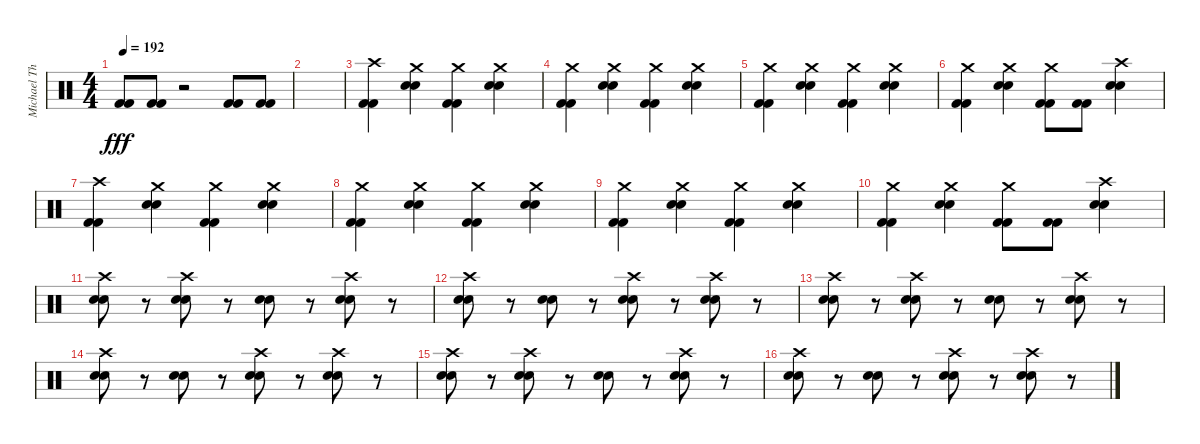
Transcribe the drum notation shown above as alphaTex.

\track ("Michael Thomas" "Michael Th") {instrument percussion}
\staff {score}
\articulation defaults
\ts (4 4)
\tempo 192
\clef neutral
\ks c
("Kick (hit) 2" "Kick (hit) 2").8{dy fff} ("Kick (hit) 2" "Kick (hit) 2").8 r.2 ("Kick (hit) 2" "Kick (hit) 2").8 ("Kick (hit) 2" "Kick (hit) 2").8 |
|
("Crash high (hit)" "Kick (hit) 2" "Kick (hit) 2").4 ("Crash medium (hit)" "Snare (hit) 2" "Electric Snare (hit)").4 ("Crash medium (hit)" "Kick (hit) 2" "Kick (hit) 2").4 ("Crash medium (hit)" "Snare (hit) 2" "Electric Snare (hit)").4 |
("Crash medium (hit)" "Kick (hit) 2" "Kick (hit) 2").4 ("Crash medium (hit)" "Snare (hit) 2" "Electric Snare (hit)").4 ("Crash medium (hit)" "Kick (hit) 2" "Kick (hit) 2").4 ("Crash medium (hit)" "Snare (hit) 2" "Electric Snare (hit)").4 |
("Crash medium (hit)" "Kick (hit) 2" "Kick (hit) 2").4 ("Crash medium (hit)" "Snare (hit) 2" "Electric Snare (hit)").4 ("Crash medium (hit)" "Kick (hit) 2" "Kick (hit) 2").4 ("Crash medium (hit)" "Snare (hit) 2" "Electric Snare (hit)").4 |
("Crash medium (hit)" "Kick (hit) 2" "Kick (hit) 2").4 ("Crash medium (hit)" "Snare (hit) 2" "Electric Snare (hit)").4 ("Crash medium (hit)" "Kick (hit) 2" "Kick (hit) 2").8 ("Kick (hit) 2" "Kick (hit) 2").8 ("Crash high (hit)" "Snare (hit) 2" "Electric Snare (hit)").4 |
("Crash high (hit)" "Kick (hit) 2" "Kick (hit) 2").4 ("Crash medium (hit)" "Snare (hit) 2" "Electric Snare (hit)").4 ("Crash medium (hit)" "Kick (hit) 2" "Kick (hit) 2").4 ("Crash medium (hit)" "Snare (hit) 2" "Electric Snare (hit)").4 |
("Crash medium (hit)" "Kick (hit) 2" "Kick (hit) 2").4 ("Crash medium (hit)" "Snare (hit) 2" "Electric Snare (hit)").4 ("Crash medium (hit)" "Kick (hit) 2" "Kick (hit) 2").4 ("Crash medium (hit)" "Snare (hit) 2" "Electric Snare (hit)").4 |
("Crash medium (hit)" "Kick (hit) 2" "Kick (hit) 2").4 ("Crash medium (hit)" "Snare (hit) 2" "Electric Snare (hit)").4 ("Crash medium (hit)" "Kick (hit) 2" "Kick (hit) 2").4 ("Crash medium (hit)" "Snare (hit) 2" "Electric Snare (hit)").4 |
("Crash medium (hit)" "Kick (hit) 2" "Kick (hit) 2").4 ("Crash medium (hit)" "Snare (hit) 2" "Electric Snare (hit)").4 ("Crash medium (hit)" "Kick (hit) 2" "Kick (hit) 2").8 ("Kick (hit) 2" "Kick (hit) 2").8 ("Crash high (hit)" "Snare (hit) 2" "Electric Snare (hit)").4 |
("Crash high (hit)" "Snare (hit) 2" "Electric Snare (hit)").8 r.8 ("Crash high (hit)" "Snare (hit) 2" "Electric Snare (hit)").8 r.8 ("Snare (hit) 2" "Electric Snare (hit)").8 r.8 ("Crash high (hit)" "Snare (hit) 2" "Electric Snare (hit)").8 r.8 |
("Crash high (hit)" "Snare (hit) 2" "Electric Snare (hit)").8 r.8 ("Snare (hit) 2" "Electric Snare (hit)").8 r.8 ("Crash high (hit)" "Snare (hit) 2" "Electric Snare (hit)").8 r.8 ("Crash high (hit)" "Snare (hit) 2" "Electric Snare (hit)").8 r.8 |
("Crash high (hit)" "Snare (hit) 2" "Electric Snare (hit)").8 r.8 ("Crash high (hit)" "Snare (hit) 2" "Electric Snare (hit)").8 r.8 ("Snare (hit) 2" "Electric Snare (hit)").8 r.8 ("Crash high (hit)" "Snare (hit) 2" "Electric Snare (hit)").8 r.8 |
("Crash high (hit)" "Snare (hit) 2" "Electric Snare (hit)").8 r.8 ("Snare (hit) 2" "Electric Snare (hit)").8 r.8 ("Crash high (hit)" "Snare (hit) 2" "Electric Snare (hit)").8 r.8 ("Crash high (hit)" "Snare (hit) 2" "Electric Snare (hit)").8 r.8 |
("Crash high (hit)" "Snare (hit) 2" "Electric Snare (hit)").8 r.8 ("Crash high (hit)" "Snare (hit) 2" "Electric Snare (hit)").8 r.8 ("Snare (hit) 2" "Electric Snare (hit)").8 r.8 ("Crash high (hit)" "Snare (hit) 2" "Electric Snare (hit)").8 r.8 |
("Crash high (hit)" "Snare (hit) 2" "Electric Snare (hit)").8 r.8 ("Snare (hit) 2" "Electric Snare (hit)").8 r.8 ("Crash high (hit)" "Snare (hit) 2" "Electric Snare (hit)").8 r.8 ("Crash high (hit)" "Snare (hit) 2" "Electric Snare (hit)").8 r.8
